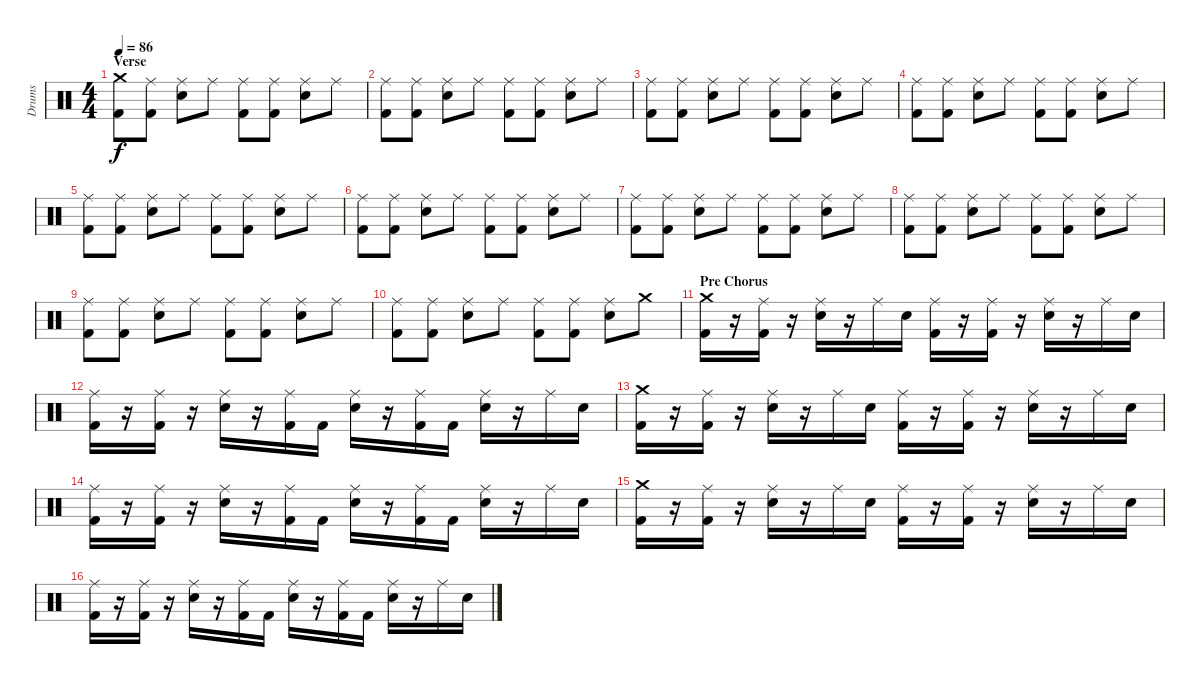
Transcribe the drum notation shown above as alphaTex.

\track ("Drums" "Drums") {instrument percussion}
\staff {score}
\articulation defaults
\ts (4 4)
\section ("" "Verse")
\tempo 86
\clef neutral
\ks c
("Crash medium (hit)" "Kick (hit) 2").8{dy f} ("Ride (middle)" "Kick (hit) 2").8 ("Ride (middle)" "Snare (hit) 2").8 "Ride (middle)".8 ("Ride (middle)" "Kick (hit) 2").8 ("Ride (middle)" "Kick (hit) 2").8 ("Ride (middle)" "Snare (hit) 2").8 "Ride (middle)".8 |
("Ride (middle)" "Kick (hit) 2").8 ("Ride (middle)" "Kick (hit) 2").8 ("Ride (middle)" "Snare (hit) 2").8 "Ride (middle)".8 ("Ride (middle)" "Kick (hit) 2").8 ("Ride (middle)" "Kick (hit) 2").8 ("Ride (middle)" "Snare (hit) 2").8 "Ride (middle)".8 |
("Ride (middle)" "Kick (hit) 2").8 ("Ride (middle)" "Kick (hit) 2").8 ("Ride (middle)" "Snare (hit) 2").8 "Ride (middle)".8 ("Ride (middle)" "Kick (hit) 2").8 ("Ride (middle)" "Kick (hit) 2").8 ("Ride (middle)" "Snare (hit) 2").8 "Ride (middle)".8 |
("Ride (middle)" "Kick (hit) 2").8 ("Ride (middle)" "Kick (hit) 2").8 ("Ride (middle)" "Snare (hit) 2").8 "Ride (middle)".8 ("Ride (middle)" "Kick (hit) 2").8 ("Ride (middle)" "Kick (hit) 2").8 ("Ride (middle)" "Snare (hit) 2").8 "Ride (middle)".8 |
("Ride (middle)" "Kick (hit) 2").8 ("Ride (middle)" "Kick (hit) 2").8 ("Ride (middle)" "Snare (hit) 2").8 "Ride (middle)".8 ("Ride (middle)" "Kick (hit) 2").8 ("Ride (middle)" "Kick (hit) 2").8 ("Ride (middle)" "Snare (hit) 2").8 "Ride (middle)".8 |
("Ride (middle)" "Kick (hit) 2").8 ("Ride (middle)" "Kick (hit) 2").8 ("Ride (middle)" "Snare (hit) 2").8 "Ride (middle)".8 ("Ride (middle)" "Kick (hit) 2").8 ("Ride (middle)" "Kick (hit) 2").8 ("Ride (middle)" "Snare (hit) 2").8 "Ride (middle)".8 |
("Ride (middle)" "Kick (hit) 2").8 ("Ride (middle)" "Kick (hit) 2").8 ("Ride (middle)" "Snare (hit) 2").8 "Ride (middle)".8 ("Ride (middle)" "Kick (hit) 2").8 ("Ride (middle)" "Kick (hit) 2").8 ("Ride (middle)" "Snare (hit) 2").8 "Ride (middle)".8 |
("Ride (middle)" "Kick (hit) 2").8 ("Ride (middle)" "Kick (hit) 2").8 ("Ride (middle)" "Snare (hit) 2").8 "Ride (middle)".8 ("Ride (middle)" "Kick (hit) 2").8 ("Ride (middle)" "Kick (hit) 2").8 ("Ride (middle)" "Snare (hit) 2").8 "Ride (middle)".8 |
("Ride (middle)" "Kick (hit) 2").8 ("Ride (middle)" "Kick (hit) 2").8 ("Ride (middle)" "Snare (hit) 2").8 "Ride (middle)".8 ("Ride (middle)" "Kick (hit) 2").8 ("Ride (middle)" "Kick (hit) 2").8 ("Ride (middle)" "Snare (hit) 2").8 "Ride (middle)".8 |
("Ride (middle)" "Kick (hit) 2").8 ("Ride (middle)" "Kick (hit) 2").8 ("Ride (middle)" "Snare (hit) 2").8 "Ride (middle)".8 ("Ride (middle)" "Kick (hit) 2").8 ("Ride (middle)" "Kick (hit) 2").8 ("Ride (middle)" "Snare (hit) 2").8 "Crash medium (hit)".8 |
\section ("" "Pre Chorus")
("Crash medium (hit)" "Kick (hit) 2").16 r.16 ("Ride (middle)" "Kick (hit) 2").16 r.16 ("Ride (middle)" "Snare (hit) 2").16 r.16 "Ride (middle)".16 "Snare (hit) 2".16 ("Ride (middle)" "Kick (hit) 2").16 r.16 ("Ride (middle)" "Kick (hit) 2").16 r.16 ("Ride (middle)" "Snare (hit) 2").16 r.16 "Ride (middle)".16 "Snare (hit) 2".16 |
("Ride (middle)" "Kick (hit) 2").16 r.16 ("Ride (middle)" "Kick (hit) 2").16 r.16 ("Ride (middle)" "Snare (hit) 2").16 r.16 ("Ride (middle)" "Kick (hit) 2").16 "Kick (hit) 2".16 ("Ride (middle)" "Snare (hit) 2").16 r.16 ("Ride (middle)" "Kick (hit) 2").16 "Kick (hit) 2".16 ("Ride (middle)" "Snare (hit) 2").16 r.16 "Ride (middle)".16 "Snare (hit) 2".16 |
("Crash medium (hit)" "Kick (hit) 2").16 r.16 ("Ride (middle)" "Kick (hit) 2").16 r.16 ("Ride (middle)" "Snare (hit) 2").16 r.16 "Ride (middle)".16 "Snare (hit) 2".16 ("Ride (middle)" "Kick (hit) 2").16 r.16 ("Ride (middle)" "Kick (hit) 2").16 r.16 ("Ride (middle)" "Snare (hit) 2").16 r.16 "Ride (middle)".16 "Snare (hit) 2".16 |
("Ride (middle)" "Kick (hit) 2").16 r.16 ("Ride (middle)" "Kick (hit) 2").16 r.16 ("Ride (middle)" "Snare (hit) 2").16 r.16 ("Ride (middle)" "Kick (hit) 2").16 "Kick (hit) 2".16 ("Ride (middle)" "Snare (hit) 2").16 r.16 ("Ride (middle)" "Kick (hit) 2").16 "Kick (hit) 2".16 ("Ride (middle)" "Snare (hit) 2").16 r.16 "Ride (middle)".16 "Snare (hit) 2".16 |
("Crash medium (hit)" "Kick (hit) 2").16 r.16 ("Ride (middle)" "Kick (hit) 2").16 r.16 ("Ride (middle)" "Snare (hit) 2").16 r.16 "Ride (middle)".16 "Snare (hit) 2".16 ("Ride (middle)" "Kick (hit) 2").16 r.16 ("Ride (middle)" "Kick (hit) 2").16 r.16 ("Ride (middle)" "Snare (hit) 2").16 r.16 "Ride (middle)".16 "Snare (hit) 2".16 |
("Ride (middle)" "Kick (hit) 2").16 r.16 ("Ride (middle)" "Kick (hit) 2").16 r.16 ("Ride (middle)" "Snare (hit) 2").16 r.16 ("Ride (middle)" "Kick (hit) 2").16 "Kick (hit) 2".16 ("Ride (middle)" "Snare (hit) 2").16 r.16 ("Ride (middle)" "Kick (hit) 2").16 "Kick (hit) 2".16 ("Ride (middle)" "Snare (hit) 2").16 r.16 "Ride (middle)".16 "Snare (hit) 2".16
